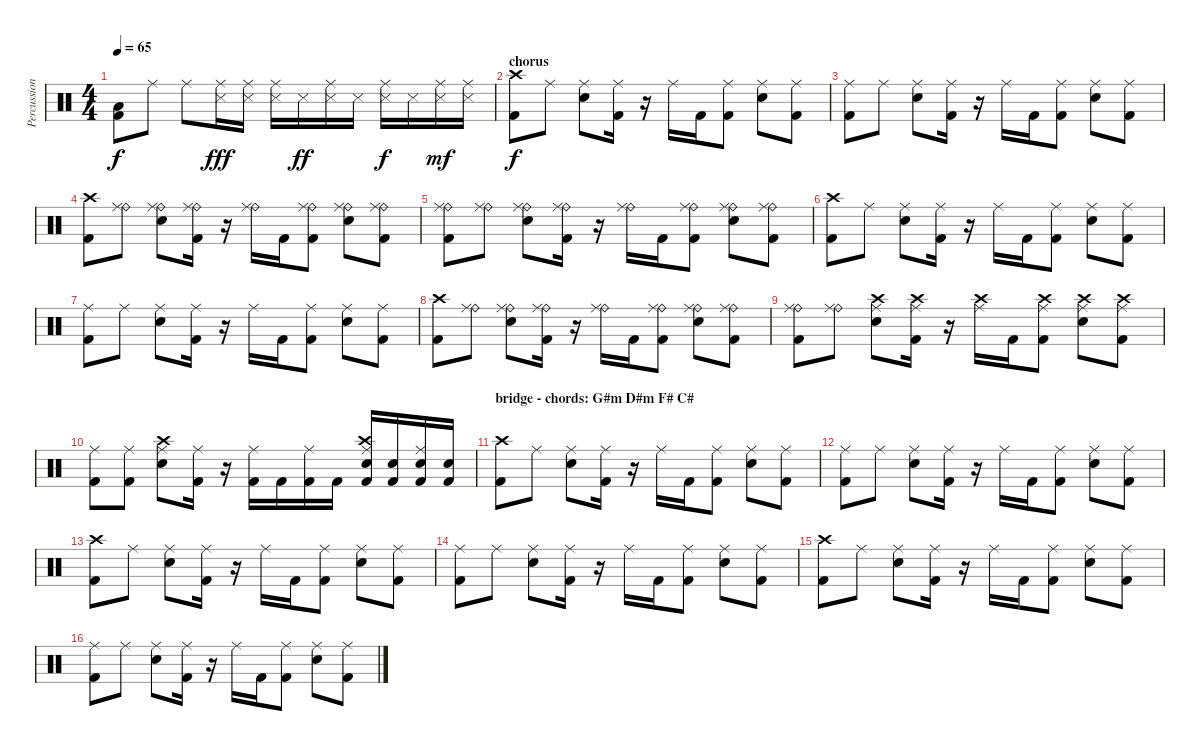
\track ("Percussion" "Percussion") {instrument percussion}
\staff {score}
\articulation defaults
\ts (4 4)
\tempo 65
\clef neutral
\ks c
("Kick (hit) 2" "Low Floor Tom (hit)").8{dy f} "Ride (middle)".8 "Ride (middle)".8 ("Ride (middle)" "Snare (side stick) 3").16{dy fff} ("Ride (middle)" "Snare (side stick) 3").16 ("Ride (middle)" "Snare (side stick) 3").16 "Snare (side stick) 3".16{dy ff} ("Ride (middle)" "Snare (side stick) 3").16 "Snare (side stick) 3".16 ("Ride (middle)" "Snare (side stick) 3").16{dy f} "Snare (side stick) 3".16 ("Ride (middle)" "Snare (side stick) 3").16{dy mf} ("Ride (middle)" "Snare (side stick) 3").16 |
\section ("" "chorus")
("Crash high (hit)" "Kick (hit) 2").8{dy f volume 13} "Ride (middle)".8 ("Ride (middle)" "Electric Snare (hit)").8 ("Ride (middle)" "Kick (hit) 2").16 r.16 "Ride (middle)".16 "Kick (hit) 2".16 ("Ride (middle)" "Kick (hit) 2").8 ("Ride (middle)" "Electric Snare (hit)").8 ("Ride (middle)" "Kick (hit) 2").8 |
("Ride (middle)" "Kick (hit) 2").8 "Ride (middle)".8 ("Ride (middle)" "Electric Snare (hit)").8 ("Ride (middle)" "Kick (hit) 2").16 r.16 "Ride (middle)".16 "Kick (hit) 2".16 ("Ride (middle)" "Kick (hit) 2").8 ("Ride (middle)" "Electric Snare (hit)").8 ("Ride (middle)" "Kick (hit) 2").8 |
("Crash high (hit)" "Kick (hit) 2").8 ("Ride (bell)" "Ride (middle)").8 ("Ride (bell)" "Ride (middle)" "Electric Snare (hit)").8 ("Ride (bell)" "Ride (middle)" "Kick (hit) 2").16 r.16 ("Ride (bell)" "Ride (middle)").16 "Kick (hit) 2".16 ("Ride (bell)" "Ride (middle)" "Kick (hit) 2").8 ("Ride (bell)" "Ride (middle)" "Electric Snare (hit)").8 ("Ride (bell)" "Ride (middle)" "Kick (hit) 2").8 |
("Ride (bell)" "Ride (middle)" "Kick (hit) 2").8 ("Ride (bell)" "Ride (middle)").8 ("Ride (bell)" "Ride (middle)" "Electric Snare (hit)").8 ("Ride (bell)" "Ride (middle)" "Kick (hit) 2").16 r.16 ("Ride (bell)" "Ride (middle)").16 "Kick (hit) 2".16 ("Ride (bell)" "Ride (middle)" "Kick (hit) 2").8 ("Ride (bell)" "Ride (middle)" "Electric Snare (hit)").8 ("Ride (bell)" "Ride (middle)" "Kick (hit) 2").8 |
("Crash high (hit)" "Kick (hit) 2").8 "Ride (middle)".8 ("Ride (middle)" "Electric Snare (hit)").8 ("Ride (middle)" "Kick (hit) 2").16 r.16 "Ride (middle)".16 "Kick (hit) 2".16 ("Ride (middle)" "Kick (hit) 2").8 ("Ride (middle)" "Electric Snare (hit)").8 ("Ride (middle)" "Kick (hit) 2").8 |
("Ride (middle)" "Kick (hit) 2").8 "Ride (middle)".8 ("Ride (middle)" "Electric Snare (hit)").8 ("Ride (middle)" "Kick (hit) 2").16 r.16 "Ride (middle)".16 "Kick (hit) 2".16 ("Ride (middle)" "Kick (hit) 2").8 ("Ride (middle)" "Electric Snare (hit)").8 ("Ride (middle)" "Kick (hit) 2").8 |
("Crash high (hit)" "Kick (hit) 2").8 ("Ride (bell)" "Ride (middle)").8 ("Ride (bell)" "Ride (middle)" "Electric Snare (hit)").8 ("Ride (bell)" "Ride (middle)" "Kick (hit) 2").16 r.16 ("Ride (bell)" "Ride (middle)").16 "Kick (hit) 2".16 ("Ride (bell)" "Ride (middle)" "Kick (hit) 2").8 ("Ride (bell)" "Ride (middle)" "Electric Snare (hit)").8 ("Ride (bell)" "Ride (middle)" "Kick (hit) 2").8 |
("Ride (bell)" "Ride (middle)" "Kick (hit) 2").8 ("Ride (bell)" "Ride (middle)").8 ("Crash high (hit)" "Ride (middle)" "Electric Snare (hit)").8 ("Crash high (hit)" "Ride (middle)" "Kick (hit) 2").16 r.16 ("Crash high (hit)" "Ride (middle)").16 "Kick (hit) 2".16 ("Crash high (hit)" "Ride (middle)" "Kick (hit) 2").8 ("Crash high (hit)" "Ride (middle)" "Electric Snare (hit)").8 ("Crash high (hit)" "Ride (middle)" "Kick (hit) 2").8 |
("Ride (middle)" "Kick (hit) 2").8 ("Ride (middle)" "Kick (hit) 2").8 ("Crash high (hit)" "Ride (middle)" "Electric Snare (hit)").8 ("Ride (middle)" "Kick (hit) 2").16 r.16 ("Ride (middle)" "Kick (hit) 2").16 "Kick (hit) 2".16 ("Ride (middle)" "Kick (hit) 2").16 "Kick (hit) 2".16 ("Crash high (hit)" "Ride (middle)" "Electric Snare (hit)" "Kick (hit) 2").16 ("Electric Snare (hit)" "Kick (hit) 2").16 ("Ride (middle)" "Electric Snare (hit)" "Kick (hit) 2").16 ("Electric Snare (hit)" "Kick (hit) 2").16 |
\section ("" "bridge - chords: G#m D#m F# C#")
("Crash high (hit)" "Kick (hit) 2").8 "Ride (middle)".8 ("Ride (middle)" "Electric Snare (hit)").8 ("Ride (middle)" "Kick (hit) 2").16 r.16 "Ride (middle)".16 "Kick (hit) 2".16 ("Ride (middle)" "Kick (hit) 2").8 ("Ride (middle)" "Electric Snare (hit)").8 ("Ride (middle)" "Kick (hit) 2").8 |
("Ride (middle)" "Kick (hit) 2").8 "Ride (middle)".8 ("Ride (middle)" "Electric Snare (hit)").8 ("Ride (middle)" "Kick (hit) 2").16 r.16 "Ride (middle)".16 "Kick (hit) 2".16 ("Ride (middle)" "Kick (hit) 2").8 ("Ride (middle)" "Electric Snare (hit)").8 ("Ride (middle)" "Kick (hit) 2").8 |
("Crash high (hit)" "Kick (hit) 2").8 "Ride (middle)".8 ("Ride (middle)" "Electric Snare (hit)").8 ("Ride (middle)" "Kick (hit) 2").16 r.16 "Ride (middle)".16 "Kick (hit) 2".16 ("Ride (middle)" "Kick (hit) 2").8 ("Ride (middle)" "Electric Snare (hit)").8 ("Ride (middle)" "Kick (hit) 2").8 |
("Ride (middle)" "Kick (hit) 2").8 "Ride (middle)".8 ("Ride (middle)" "Electric Snare (hit)").8 ("Ride (middle)" "Kick (hit) 2").16 r.16 "Ride (middle)".16 "Kick (hit) 2".16 ("Ride (middle)" "Kick (hit) 2").8 ("Ride (middle)" "Electric Snare (hit)").8 ("Ride (middle)" "Kick (hit) 2").8 |
("Crash high (hit)" "Kick (hit) 2").8 "Ride (middle)".8 ("Ride (middle)" "Electric Snare (hit)").8 ("Ride (middle)" "Kick (hit) 2").16 r.16 "Ride (middle)".16 "Kick (hit) 2".16 ("Ride (middle)" "Kick (hit) 2").8 ("Ride (middle)" "Electric Snare (hit)").8 ("Ride (middle)" "Kick (hit) 2").8 |
("Ride (middle)" "Kick (hit) 2").8 "Ride (middle)".8 ("Ride (middle)" "Electric Snare (hit)").8 ("Ride (middle)" "Kick (hit) 2").16 r.16 "Ride (middle)".16 "Kick (hit) 2".16 ("Ride (middle)" "Kick (hit) 2").8 ("Ride (middle)" "Electric Snare (hit)").8 ("Ride (middle)" "Kick (hit) 2").8
